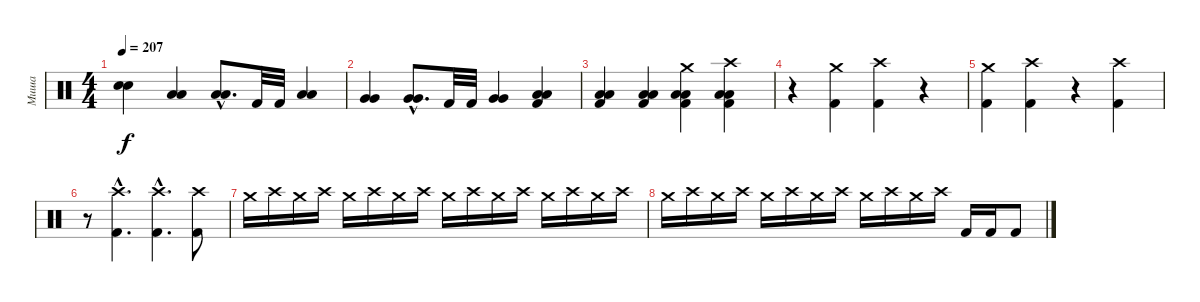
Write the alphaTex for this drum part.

\track ("Миша" "Миша") {instrument percussion}
\staff {score}
\articulation defaults
\ts (4 4)
\tempo 207
\clef neutral
\ks c
("Snare (hit) 2" "Snare (hit) 2").4{dy f} ("Low Tom (hit)" "Low Tom (hit)").4 ("Low Tom (hit)"{hac} "Low Tom (hit)"{hac}).8{d} "Kick (hit) 2".32 "Kick (hit) 2".32 ("Low Tom (hit)" "Low Tom (hit)").4 |
("Very Low Tom (hit)" "Very Low Tom (hit)").4 ("Very Low Tom (hit)"{hac} "Very Low Tom (hit)"{hac}).8{d} "Kick (hit) 2".32 "Kick (hit) 2".32 ("Very Low Tom (hit)" "Very Low Tom (hit)").4 ("Kick (hit) 2" "Low Floor Tom (hit)" "Low Floor Tom (hit)").4 |
("Kick (hit) 2" "Low Floor Tom (hit)" "Low Floor Tom (hit)").4 ("Kick (hit) 2" "Low Floor Tom (hit)" "Low Floor Tom (hit)").4 ("Kick (hit) 2" "Low Tom (hit)" "Low Tom (hit)" "Crash medium (hit)").4 ("Kick (hit) 2" "Low Tom (hit)" "Low Tom (hit)" "Crash high (hit)").4 |
r.4 ("Kick (hit) 2" "Crash medium (hit)").4 ("Kick (hit) 2" "Crash high (hit)").4 r.4 |
("Kick (hit) 2" "Crash medium (hit)").4 ("Kick (hit) 2" "Crash high (hit)").4 r.4 ("Kick (hit) 2" "Crash high (hit)").4 |
r.8 ("Kick (hit) 2"{hac} "Crash high (hit)"{hac}).4{d} ("Kick (hit) 2"{hac} "Crash high (hit)"{hac}).4{d} ("Kick (hit) 2" "Crash high (hit)").8{volume 9} |
"Crash medium (hit)".16{volume 13} "Crash high (hit)".16 "Crash medium (hit)".16 "Crash high (hit)".16 "Crash medium (hit)".16 "Crash high (hit)".16 "Crash medium (hit)".16 "Crash high (hit)".16 "Crash medium (hit)".16 "Crash high (hit)".16 "Crash medium (hit)".16 "Crash high (hit)".16 "Crash medium (hit)".16 "Crash high (hit)".16 "Crash medium (hit)".16 "Crash high (hit)".16 |
"Crash medium (hit)".16{volume 9} "Crash high (hit)".16 "Crash medium (hit)".16 "Crash high (hit)".16 "Crash medium (hit)".16 "Crash high (hit)".16 "Crash medium (hit)".16 "Crash high (hit)".16 "Crash medium (hit)".16 "Crash high (hit)".16 "Crash medium (hit)".16 "Crash high (hit)".16 "Kick (hit) 2".16{volume 13} "Kick (hit) 2".16 "Kick (hit) 2".8
